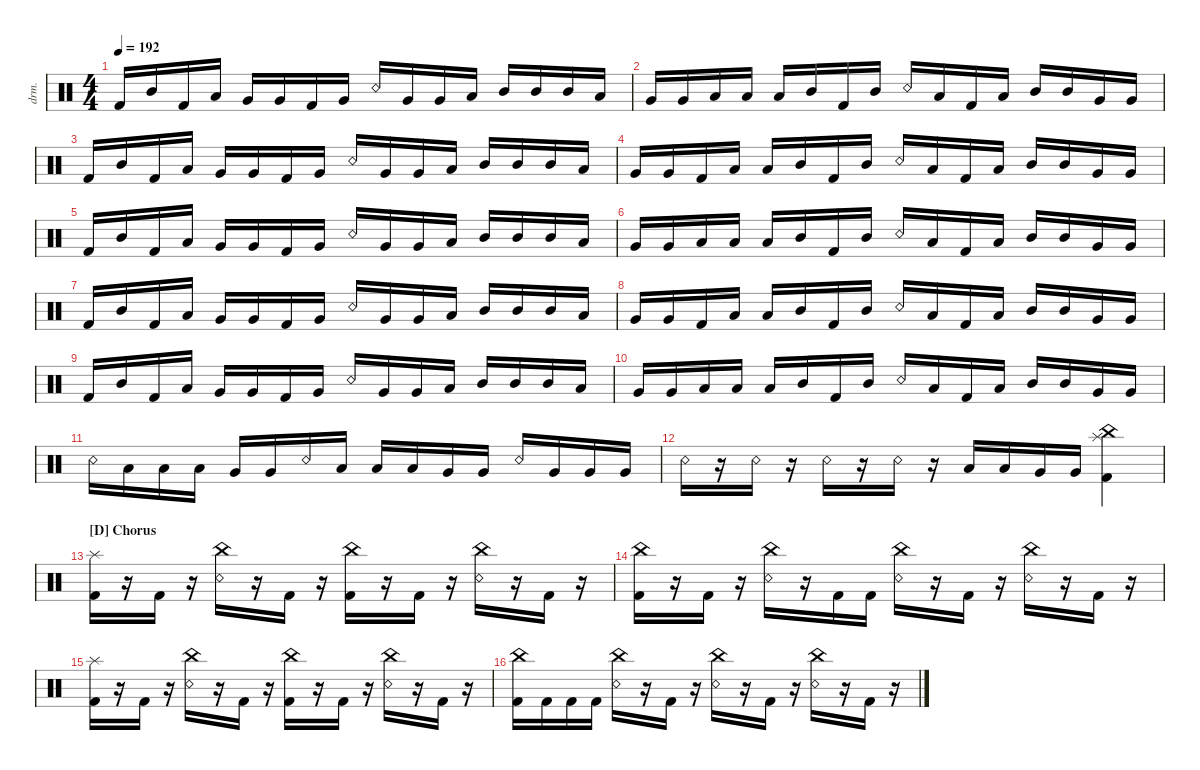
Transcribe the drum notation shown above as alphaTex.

\defaultSystemsLayout 4
\hideDynamics
\bracketExtendMode nobrackets
\otherSystemsTrackNameOrientation horizontal
\track ("Drumkit" "drm.") {instrument percussion}
\staff {score}
\articulation defaults
\ts (4 4)
\tempo 192
\clef neutral
\ks c "Kick (hit) 2".16{dy ff beam Up} "Mid Tom (hit)".16{beam Up} "Kick (hit) 2".16{beam Up} "Low Tom (hit)".16{beam Up} "Very Low Tom (hit)".16{beam Up} "Very Low Tom (hit)".16{beam Up} "Kick (hit) 2".16{beam Up} "Very Low Tom (hit)".16{beam Up} "Snare (rim shot)".16{beam Up} "Very Low Tom (hit)".16{beam Up} "Very Low Tom (hit)".16{beam Up} "Low Tom (hit)".16{beam Up} "Mid Tom (hit)".16{beam Up} "Mid Tom (hit)".16{beam Up} "Mid Tom (hit)".16{beam Up} "Low Tom (hit)".16{beam Up}
|
"Very Low Tom (hit)".16{beam Up} "Very Low Tom (hit)".16{beam Up} "Low Tom (hit)".16{beam Up} "Low Tom (hit)".16{beam Up} "Low Tom (hit)".16{beam Up} "Mid Tom (hit)".16{beam Up} "Kick (hit) 2".16{beam Up} "Mid Tom (hit)".16{beam Up} "Snare (rim shot)".16{beam Up} "Low Tom (hit)".16{beam Up} "Kick (hit) 2".16{beam Up} "Low Tom (hit)".16{beam Up} "Mid Tom (hit)".16{beam Up} "Mid Tom (hit)".16{beam Up} "Very Low Tom (hit)".16{beam Up} "Very Low Tom (hit)".16{beam Up} |
"Kick (hit) 2".16{beam Up} "Mid Tom (hit)".16{beam Up} "Kick (hit) 2".16{beam Up} "Low Tom (hit)".16{beam Up} "Very Low Tom (hit)".16{beam Up} "Very Low Tom (hit)".16{beam Up} "Kick (hit) 2".16{beam Up} "Very Low Tom (hit)".16{beam Up} "Snare (rim shot)".16{beam Up} "Very Low Tom (hit)".16{beam Up} "Very Low Tom (hit)".16{beam Up} "Low Tom (hit)".16{beam Up} "Mid Tom (hit)".16{beam Up} "Mid Tom (hit)".16{beam Up} "Mid Tom (hit)".16{beam Up} "Low Tom (hit)".16{beam Up} |
"Very Low Tom (hit)".16{beam Up} "Very Low Tom (hit)".16{beam Up} "Kick (hit) 2".16{beam Up} "Low Tom (hit)".16{beam Up} "Low Tom (hit)".16{beam Up} "Mid Tom (hit)".16{beam Up} "Kick (hit) 2".16{beam Up} "Mid Tom (hit)".16{beam Up} "Snare (rim shot)".16{beam Up} "Low Tom (hit)".16{beam Up} "Kick (hit) 2".16{beam Up} "Low Tom (hit)".16{beam Up} "Mid Tom (hit)".16{beam Up} "Mid Tom (hit)".16{beam Up} "Very Low Tom (hit)".16{beam Up} "Very Low Tom (hit)".16{beam Up} |
"Kick (hit) 2".16{beam Up} "Mid Tom (hit)".16{beam Up} "Kick (hit) 2".16{beam Up} "Low Tom (hit)".16{beam Up} "Very Low Tom (hit)".16{beam Up} "Very Low Tom (hit)".16{beam Up} "Kick (hit) 2".16{beam Up} "Very Low Tom (hit)".16{beam Up} "Snare (rim shot)".16{beam Up} "Very Low Tom (hit)".16{beam Up} "Very Low Tom (hit)".16{beam Up} "Low Tom (hit)".16{beam Up} "Mid Tom (hit)".16{beam Up} "Mid Tom (hit)".16{beam Up} "Mid Tom (hit)".16{beam Up} "Low Tom (hit)".16{beam Up} |
"Very Low Tom (hit)".16{beam Up} "Very Low Tom (hit)".16{beam Up} "Low Tom (hit)".16{beam Up} "Low Tom (hit)".16{beam Up} "Low Tom (hit)".16{beam Up} "Mid Tom (hit)".16{beam Up} "Kick (hit) 2".16{beam Up} "Mid Tom (hit)".16{beam Up} "Snare (rim shot)".16{beam Up} "Low Tom (hit)".16{beam Up} "Kick (hit) 2".16{beam Up} "Low Tom (hit)".16{beam Up} "Mid Tom (hit)".16{beam Up} "Mid Tom (hit)".16{beam Up} "Very Low Tom (hit)".16{beam Up} "Very Low Tom (hit)".16{beam Up} |
"Kick (hit) 2".16{beam Up} "Mid Tom (hit)".16{beam Up} "Kick (hit) 2".16{beam Up} "Low Tom (hit)".16{beam Up} "Very Low Tom (hit)".16{beam Up} "Very Low Tom (hit)".16{beam Up} "Kick (hit) 2".16{beam Up} "Very Low Tom (hit)".16{beam Up} "Snare (rim shot)".16{beam Up} "Very Low Tom (hit)".16{beam Up} "Very Low Tom (hit)".16{beam Up} "Low Tom (hit)".16{beam Up} "Mid Tom (hit)".16{beam Up} "Mid Tom (hit)".16{beam Up} "Mid Tom (hit)".16{beam Up} "Low Tom (hit)".16{beam Up} |
"Very Low Tom (hit)".16{beam Up} "Very Low Tom (hit)".16{beam Up} "Kick (hit) 2".16{beam Up} "Low Tom (hit)".16{beam Up} "Low Tom (hit)".16{beam Up} "Mid Tom (hit)".16{beam Up} "Kick (hit) 2".16{beam Up} "Mid Tom (hit)".16{beam Up} "Snare (rim shot)".16{beam Up} "Low Tom (hit)".16{beam Up} "Kick (hit) 2".16{beam Up} "Low Tom (hit)".16{beam Up} "Mid Tom (hit)".16{beam Up} "Mid Tom (hit)".16{beam Up} "Very Low Tom (hit)".16{beam Up} "Very Low Tom (hit)".16{beam Up} |
"Kick (hit) 2".16{beam Up} "Mid Tom (hit)".16{beam Up} "Kick (hit) 2".16{beam Up} "Low Tom (hit)".16{beam Up} "Very Low Tom (hit)".16{beam Up} "Very Low Tom (hit)".16{beam Up} "Kick (hit) 2".16{beam Up} "Very Low Tom (hit)".16{beam Up} "Snare (rim shot)".16{beam Up} "Very Low Tom (hit)".16{beam Up} "Very Low Tom (hit)".16{beam Up} "Low Tom (hit)".16{beam Up} "Mid Tom (hit)".16{beam Up} "Mid Tom (hit)".16{beam Up} "Mid Tom (hit)".16{beam Up} "Low Tom (hit)".16{beam Up} |
"Very Low Tom (hit)".16{beam Up} "Very Low Tom (hit)".16{beam Up} "Low Tom (hit)".16{beam Up} "Low Tom (hit)".16{beam Up} "Low Tom (hit)".16{beam Up} "Mid Tom (hit)".16{beam Up} "Kick (hit) 2".16{beam Up} "Mid Tom (hit)".16{beam Up} "Snare (rim shot)".16{beam Up} "Low Tom (hit)".16{beam Up} "Kick (hit) 2".16{beam Up} "Low Tom (hit)".16{beam Up} "Mid Tom (hit)".16{beam Up} "Mid Tom (hit)".16{beam Up} "Very Low Tom (hit)".16{beam Up} "Very Low Tom (hit)".16{beam Up} |
"Snare (rim shot)".16{beam Down} "Low Tom (hit)".16{beam Down} "Low Tom (hit)".16{beam Down} "Low Tom (hit)".16{beam Down} "Very Low Tom (hit)".16{beam Up} "Very Low Tom (hit)".16{beam Up} "Snare (rim shot)".16{beam Up} "Low Tom (hit)".16{beam Up} "Low Tom (hit)".16{beam Up} "Low Tom (hit)".16{beam Up} "Very Low Tom (hit)".16{beam Up} "Very Low Tom (hit)".16{beam Up} "Snare (rim shot)".16{beam Up} "Very Low Tom (hit)".16{beam Up} "Very Low Tom (hit)".16{beam Up} "Very Low Tom (hit)".16{beam Up} |
"Snare (rim shot)".16{beam Down} r.16{beam Down} "Snare (rim shot)".16{beam Down} r.16{beam Down} "Snare (rim shot)".16{beam Down} r.16{beam Down} "Snare (rim shot)".16{beam Down} r.16{beam Down} "Low Tom (hit)".16{beam Up} "Low Tom (hit)".16{beam Up} "Very Low Tom (hit)".16{beam Up} "Very Low Tom (hit)".16{beam Up} ("Kick (hit) 2" "China (hit)" "Splash (hit)").4{beam Down} |
\section ("D" "Chorus")
("Kick (hit) 2" "Splash (hit)").16{beam Down} r.16{beam Down} "Kick (hit) 2".16{beam Down} r.16{beam Down} ("China (hit)" "Snare (rim shot)").16{beam Down} r.16{beam Down} "Kick (hit) 2".16{beam Down} r.16{beam Down} ("China (hit)" "Kick (hit) 2").16{beam Down} r.16{beam Down} "Kick (hit) 2".16{beam Down} r.16{beam Down} ("China (hit)" "Snare (rim shot)").16{beam Down} r.16{beam Down} "Kick (hit) 2".16{beam Down} r.16{beam Down} |
("Kick (hit) 2" "China (hit)").16{beam Down} r.16{beam Down} "Kick (hit) 2".16{beam Down} r.16{beam Down} ("China (hit)" "Snare (rim shot)").16{beam Down} r.16{beam Down} "Kick (hit) 2".16{beam Down} "Kick (hit) 2".16{beam Down} ("China (hit)" "Snare (rim shot)").16{beam Down} r.16{beam Down} "Kick (hit) 2".16{beam Down} r.16{beam Down} ("China (hit)" "Snare (rim shot)").16{beam Down} r.16{beam Down} "Kick (hit) 2".16{beam Down} r.16{beam Down} |
("Kick (hit) 2" "Splash (hit)").16{beam Down} r.16{beam Down} "Kick (hit) 2".16{beam Down} r.16{beam Down} ("China (hit)" "Snare (rim shot)").16{beam Down} r.16{beam Down} "Kick (hit) 2".16{beam Down} r.16{beam Down} ("China (hit)" "Kick (hit) 2").16{beam Down} r.16{beam Down} "Kick (hit) 2".16{beam Down} r.16{beam Down} ("China (hit)" "Snare (rim shot)").16{beam Down} r.16{beam Down} "Kick (hit) 2".16{beam Down} r.16{beam Down} |
("Kick (hit) 2" "China (hit)").16{beam Down} "Kick (hit) 2".16{beam Down} "Kick (hit) 2".16{beam Down} "Kick (hit) 2".16{beam Down} ("China (hit)" "Snare (rim shot)").16{beam Down} r.16{beam Down} "Kick (hit) 2".16{beam Down} r.16{beam Down} ("China (hit)" "Snare (rim shot)").16{beam Down} r.16{beam Down} "Kick (hit) 2".16{beam Down} r.16{beam Down} ("China (hit)" "Snare (rim shot)").16{beam Down} r.16{beam Down} "Kick (hit) 2".16{beam Down} r.16{beam Down}
